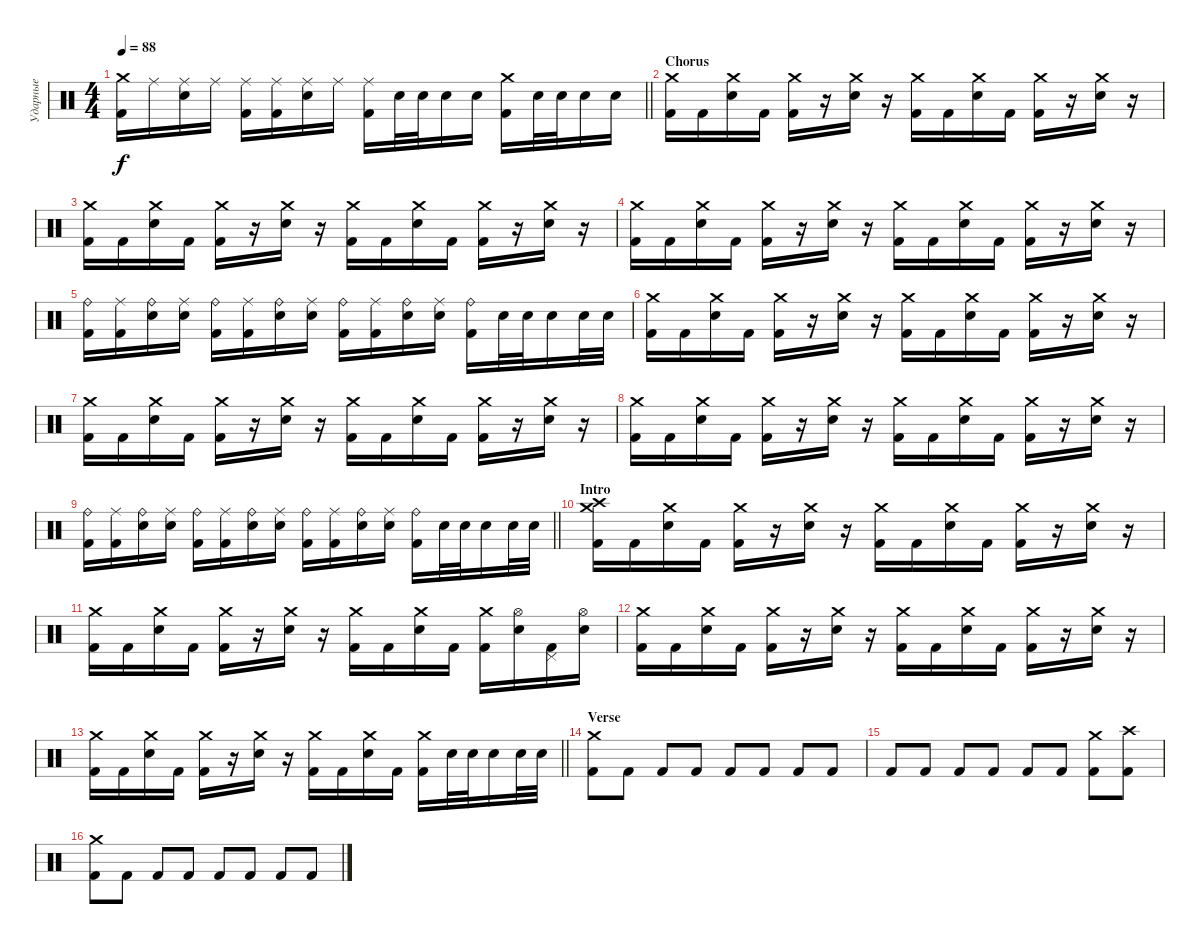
\track ("Ударные" "Ударные") {instrument percussion}
\staff {score}
\articulation defaults
\ts (4 4)
\tempo 88
\clef neutral
\barLineRight lightlight
\ks c
("Crash medium (hit)" "Kick (hit) 2").16{dy f} "Ride (middle)".16 ("Ride (middle)" "Electric Snare (hit)").16 "Ride (middle)".16 ("Ride (middle)" "Kick (hit) 2").16 ("Ride (middle)" "Kick (hit) 2").16 ("Ride (middle)" "Electric Snare (hit)").16 "Ride (middle)".16 ("Ride (middle)" "Kick (hit) 2").16 "Electric Snare (hit)".32 "Electric Snare (hit)".32 "Electric Snare (hit)".16 "Electric Snare (hit)".16 ("Crash medium (hit)" "Kick (hit) 2").16 "Electric Snare (hit)".32 "Electric Snare (hit)".32 "Electric Snare (hit)".16 "Electric Snare (hit)".16 |
\section ("" "Chorus")
("Crash medium (hit)" "Kick (hit) 2").16 "Kick (hit) 2".16 ("Crash medium (hit)" "Electric Snare (hit)").16 "Kick (hit) 2".16 ("Crash medium (hit)" "Kick (hit) 2").16 r.16 ("Crash medium (hit)" "Electric Snare (hit)").16 r.16 ("Crash medium (hit)" "Kick (hit) 2").16 "Kick (hit) 2".16 ("Crash medium (hit)" "Electric Snare (hit)").16 "Kick (hit) 2".16 ("Crash medium (hit)" "Kick (hit) 2").16 r.16 ("Crash medium (hit)" "Electric Snare (hit)").16 r.16 |
("Crash medium (hit)" "Kick (hit) 2").16 "Kick (hit) 2".16 ("Crash medium (hit)" "Electric Snare (hit)").16 "Kick (hit) 2".16 ("Crash medium (hit)" "Kick (hit) 2").16 r.16 ("Crash medium (hit)" "Electric Snare (hit)").16 r.16 ("Crash medium (hit)" "Kick (hit) 2").16 "Kick (hit) 2".16 ("Crash medium (hit)" "Electric Snare (hit)").16 "Kick (hit) 2".16 ("Crash medium (hit)" "Kick (hit) 2").16 r.16 ("Crash medium (hit)" "Electric Snare (hit)").16 r.16 |
("Crash medium (hit)" "Kick (hit) 2").16 "Kick (hit) 2".16 ("Crash medium (hit)" "Electric Snare (hit)").16 "Kick (hit) 2".16 ("Crash medium (hit)" "Kick (hit) 2").16 r.16 ("Crash medium (hit)" "Electric Snare (hit)").16 r.16 ("Crash medium (hit)" "Kick (hit) 2").16 "Kick (hit) 2".16 ("Crash medium (hit)" "Electric Snare (hit)").16 "Kick (hit) 2".16 ("Crash medium (hit)" "Kick (hit) 2").16 r.16 ("Crash medium (hit)" "Electric Snare (hit)").16 r.16 |
("Ride (bell)" "Kick (hit) 2").16 ("Ride (middle)" "Kick (hit) 2").16 ("Ride (bell)" "Electric Snare (hit)").16 ("Ride (middle)" "Electric Snare (hit)").16 ("Ride (bell)" "Kick (hit) 2").16 ("Ride (middle)" "Kick (hit) 2").16 ("Ride (bell)" "Electric Snare (hit)").16 ("Ride (middle)" "Electric Snare (hit)").16 ("Ride (bell)" "Kick (hit) 2").16 ("Ride (middle)" "Kick (hit) 2").16 ("Ride (bell)" "Electric Snare (hit)").16 ("Ride (middle)" "Electric Snare (hit)").16 ("Ride (bell)" "Kick (hit) 2").16 "Electric Snare (hit)".32 "Electric Snare (hit)".32 "Electric Snare (hit)".16 "Electric Snare (hit)".32 "Electric Snare (hit)".32 |
("Crash medium (hit)" "Kick (hit) 2").16 "Kick (hit) 2".16 ("Crash medium (hit)" "Electric Snare (hit)").16 "Kick (hit) 2".16 ("Crash medium (hit)" "Kick (hit) 2").16 r.16 ("Crash medium (hit)" "Electric Snare (hit)").16 r.16 ("Crash medium (hit)" "Kick (hit) 2").16 "Kick (hit) 2".16 ("Crash medium (hit)" "Electric Snare (hit)").16 "Kick (hit) 2".16 ("Crash medium (hit)" "Kick (hit) 2").16 r.16 ("Crash medium (hit)" "Electric Snare (hit)").16 r.16 |
("Crash medium (hit)" "Kick (hit) 2").16 "Kick (hit) 2".16 ("Crash medium (hit)" "Electric Snare (hit)").16 "Kick (hit) 2".16 ("Crash medium (hit)" "Kick (hit) 2").16 r.16 ("Crash medium (hit)" "Electric Snare (hit)").16 r.16 ("Crash medium (hit)" "Kick (hit) 2").16 "Kick (hit) 2".16 ("Crash medium (hit)" "Electric Snare (hit)").16 "Kick (hit) 2".16 ("Crash medium (hit)" "Kick (hit) 2").16 r.16 ("Crash medium (hit)" "Electric Snare (hit)").16 r.16 |
("Crash medium (hit)" "Kick (hit) 2").16 "Kick (hit) 2".16 ("Crash medium (hit)" "Electric Snare (hit)").16 "Kick (hit) 2".16 ("Crash medium (hit)" "Kick (hit) 2").16 r.16 ("Crash medium (hit)" "Electric Snare (hit)").16 r.16 ("Crash medium (hit)" "Kick (hit) 2").16 "Kick (hit) 2".16 ("Crash medium (hit)" "Electric Snare (hit)").16 "Kick (hit) 2".16 ("Crash medium (hit)" "Kick (hit) 2").16 r.16 ("Crash medium (hit)" "Electric Snare (hit)").16 r.16 |
\barLineRight lightlight
("Ride (bell)" "Kick (hit) 2").16 ("Ride (middle)" "Kick (hit) 2").16 ("Ride (bell)" "Electric Snare (hit)").16 ("Ride (middle)" "Electric Snare (hit)").16 ("Ride (bell)" "Kick (hit) 2").16 ("Ride (middle)" "Kick (hit) 2").16 ("Ride (bell)" "Electric Snare (hit)").16 ("Ride (middle)" "Electric Snare (hit)").16 ("Ride (bell)" "Kick (hit) 2").16 ("Ride (middle)" "Kick (hit) 2").16 ("Ride (bell)" "Electric Snare (hit)").16 ("Ride (middle)" "Electric Snare (hit)").16 ("Ride (bell)" "Kick (hit) 2").16 "Electric Snare (hit)".32 "Electric Snare (hit)".32 "Electric Snare (hit)".16 "Electric Snare (hit)".32 "Electric Snare (hit)".32 |
\section ("" "Intro")
("Crash high (hit)" "Crash medium (hit)" "Kick (hit) 2").16 "Kick (hit) 2".16 ("Crash medium (hit)" "Electric Snare (hit)").16 "Kick (hit) 2".16 ("Crash medium (hit)" "Kick (hit) 2").16 r.16 ("Crash medium (hit)" "Electric Snare (hit)").16 r.16 ("Crash medium (hit)" "Kick (hit) 2").16 "Kick (hit) 2".16 ("Crash medium (hit)" "Electric Snare (hit)").16 "Kick (hit) 2".16 ("Crash medium (hit)" "Kick (hit) 2").16 r.16 ("Crash medium (hit)" "Electric Snare (hit)").16 r.16 |
("Crash medium (hit)" "Kick (hit) 2").16 "Kick (hit) 2".16 ("Crash medium (hit)" "Electric Snare (hit)").16 "Kick (hit) 2".16 ("Crash medium (hit)" "Kick (hit) 2").16 r.16 ("Crash medium (hit)" "Electric Snare (hit)").16 r.16 ("Crash medium (hit)" "Kick (hit) 2").16 "Kick (hit) 2".16 ("Crash medium (hit)" "Electric Snare (hit)").16 "Kick (hit) 2".16 ("Crash medium (hit)" "Kick (hit) 2").16 ("Hi-Hat (open)" "Electric Snare (hit)").16 ("Pedal Hi-Hat (hit)" "Kick (hit) 2").16 ("Hi-Hat (open)" "Electric Snare (hit)").16 |
("Crash medium (hit)" "Kick (hit) 2").16 "Kick (hit) 2".16 ("Crash medium (hit)" "Electric Snare (hit)").16 "Kick (hit) 2".16 ("Crash medium (hit)" "Kick (hit) 2").16 r.16 ("Crash medium (hit)" "Electric Snare (hit)").16 r.16 ("Crash medium (hit)" "Kick (hit) 2").16 "Kick (hit) 2".16 ("Crash medium (hit)" "Electric Snare (hit)").16 "Kick (hit) 2".16 ("Crash medium (hit)" "Kick (hit) 2").16 r.16 ("Crash medium (hit)" "Electric Snare (hit)").16 r.16 |
\barLineRight lightlight
("Crash medium (hit)" "Kick (hit) 2").16 "Kick (hit) 2".16 ("Crash medium (hit)" "Electric Snare (hit)").16 "Kick (hit) 2".16 ("Crash medium (hit)" "Kick (hit) 2").16 r.16 ("Crash medium (hit)" "Electric Snare (hit)").16 r.16 ("Crash medium (hit)" "Kick (hit) 2").16 "Kick (hit) 2".16 ("Crash medium (hit)" "Electric Snare (hit)").16 "Kick (hit) 2".16 ("Crash medium (hit)" "Kick (hit) 2").16 "Electric Snare (hit)".32 "Electric Snare (hit)".32 "Electric Snare (hit)".16 "Electric Snare (hit)".32 "Electric Snare (hit)".32 |
\section ("" "Verse")
("Crash medium (hit)" "Kick (hit) 2").8 "Kick (hit) 2".8 "Kick (hit) 2".8 "Kick (hit) 2".8 "Kick (hit) 2".8 "Kick (hit) 2".8 "Kick (hit) 2".8 "Kick (hit) 2".8 |
"Kick (hit) 2".8 "Kick (hit) 2".8 "Kick (hit) 2".8 "Kick (hit) 2".8 "Kick (hit) 2".8 "Kick (hit) 2".8 ("Crash medium (hit)" "Kick (hit) 2").8 ("Crash high (hit)" "Kick (hit) 2").8 |
("Crash medium (hit)" "Kick (hit) 2").8 "Kick (hit) 2".8 "Kick (hit) 2".8 "Kick (hit) 2".8 "Kick (hit) 2".8 "Kick (hit) 2".8 "Kick (hit) 2".8 "Kick (hit) 2".8
